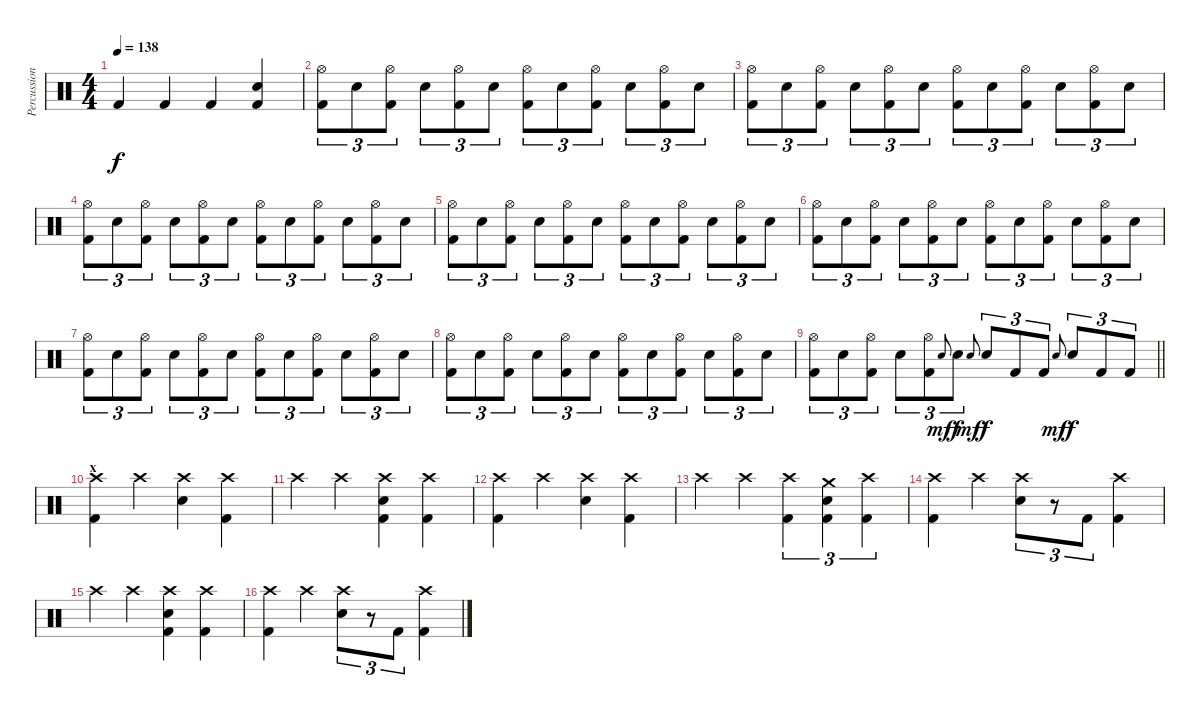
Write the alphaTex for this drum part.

\track ("Percussion" "Percussion") {instrument percussion}
\staff {score}
\articulation defaults
\ts (4 4)
\tempo 138
\clef neutral
\ks c "Kick (hit) 2".4{dy f} "Kick (hit) 2".4 "Kick (hit) 2".4
("Electric Snare (hit)" "Kick (hit) 2").4 |
("Hi-Hat (open)" "Kick (hit) 2").8{tu (3 2)} "Electric Snare (hit)".8{tu (3 2)} ("Hi-Hat (open)" "Kick (hit) 2").8{tu (3 2)} "Electric Snare (hit)".8{tu (3 2)} ("Hi-Hat (open)" "Kick (hit) 2").8{tu (3 2)} "Electric Snare (hit)".8{tu (3 2)} ("Hi-Hat (open)" "Kick (hit) 2").8{tu (3 2)} "Electric Snare (hit)".8{tu (3 2)} ("Hi-Hat (open)" "Kick (hit) 2").8{tu (3 2)} "Electric Snare (hit)".8{tu (3 2)} ("Hi-Hat (open)" "Kick (hit) 2").8{tu (3 2)} "Electric Snare (hit)".8{tu (3 2)} |
("Hi-Hat (open)" "Kick (hit) 2").8{tu (3 2)} "Electric Snare (hit)".8{tu (3 2)} ("Hi-Hat (open)" "Kick (hit) 2").8{tu (3 2)} "Electric Snare (hit)".8{tu (3 2)} ("Hi-Hat (open)" "Kick (hit) 2").8{tu (3 2)} "Electric Snare (hit)".8{tu (3 2)} ("Hi-Hat (open)" "Kick (hit) 2").8{tu (3 2)} "Electric Snare (hit)".8{tu (3 2)} ("Hi-Hat (open)" "Kick (hit) 2").8{tu (3 2)} "Electric Snare (hit)".8{tu (3 2)} ("Hi-Hat (open)" "Kick (hit) 2").8{tu (3 2)} "Electric Snare (hit)".8{tu (3 2)} |
("Hi-Hat (open)" "Kick (hit) 2").8{tu (3 2)} "Electric Snare (hit)".8{tu (3 2)} ("Hi-Hat (open)" "Kick (hit) 2").8{tu (3 2)} "Electric Snare (hit)".8{tu (3 2)} ("Hi-Hat (open)" "Kick (hit) 2").8{tu (3 2)} "Electric Snare (hit)".8{tu (3 2)} ("Hi-Hat (open)" "Kick (hit) 2").8{tu (3 2)} "Electric Snare (hit)".8{tu (3 2)} ("Hi-Hat (open)" "Kick (hit) 2").8{tu (3 2)} "Electric Snare (hit)".8{tu (3 2)} ("Hi-Hat (open)" "Kick (hit) 2").8{tu (3 2)} "Electric Snare (hit)".8{tu (3 2)} |
("Hi-Hat (open)" "Kick (hit) 2").8{tu (3 2)} "Electric Snare (hit)".8{tu (3 2)} ("Hi-Hat (open)" "Kick (hit) 2").8{tu (3 2)} "Electric Snare (hit)".8{tu (3 2)} ("Hi-Hat (open)" "Kick (hit) 2").8{tu (3 2)} "Electric Snare (hit)".8{tu (3 2)} ("Hi-Hat (open)" "Kick (hit) 2").8{tu (3 2)} "Electric Snare (hit)".8{tu (3 2)} ("Hi-Hat (open)" "Kick (hit) 2").8{tu (3 2)} "Electric Snare (hit)".8{tu (3 2)} ("Hi-Hat (open)" "Kick (hit) 2").8{tu (3 2)} "Electric Snare (hit)".8{tu (3 2)} |
("Hi-Hat (open)" "Kick (hit) 2").8{tu (3 2)} "Electric Snare (hit)".8{tu (3 2)} ("Hi-Hat (open)" "Kick (hit) 2").8{tu (3 2)} "Electric Snare (hit)".8{tu (3 2)} ("Hi-Hat (open)" "Kick (hit) 2").8{tu (3 2)} "Electric Snare (hit)".8{tu (3 2)} ("Hi-Hat (open)" "Kick (hit) 2").8{tu (3 2)} "Electric Snare (hit)".8{tu (3 2)} ("Hi-Hat (open)" "Kick (hit) 2").8{tu (3 2)} "Electric Snare (hit)".8{tu (3 2)} ("Hi-Hat (open)" "Kick (hit) 2").8{tu (3 2)} "Electric Snare (hit)".8{tu (3 2)} |
("Hi-Hat (open)" "Kick (hit) 2").8{tu (3 2)} "Electric Snare (hit)".8{tu (3 2)} ("Hi-Hat (open)" "Kick (hit) 2").8{tu (3 2)} "Electric Snare (hit)".8{tu (3 2)} ("Hi-Hat (open)" "Kick (hit) 2").8{tu (3 2)} "Electric Snare (hit)".8{tu (3 2)} ("Hi-Hat (open)" "Kick (hit) 2").8{tu (3 2)} "Electric Snare (hit)".8{tu (3 2)} ("Hi-Hat (open)" "Kick (hit) 2").8{tu (3 2)} "Electric Snare (hit)".8{tu (3 2)} ("Hi-Hat (open)" "Kick (hit) 2").8{tu (3 2)} "Electric Snare (hit)".8{tu (3 2)} |
("Hi-Hat (open)" "Kick (hit) 2").8{tu (3 2)} "Electric Snare (hit)".8{tu (3 2)} ("Hi-Hat (open)" "Kick (hit) 2").8{tu (3 2)} "Electric Snare (hit)".8{tu (3 2)} ("Hi-Hat (open)" "Kick (hit) 2").8{tu (3 2)} "Electric Snare (hit)".8{tu (3 2)} ("Hi-Hat (open)" "Kick (hit) 2").8{tu (3 2)} "Electric Snare (hit)".8{tu (3 2)} ("Hi-Hat (open)" "Kick (hit) 2").8{tu (3 2)} "Electric Snare (hit)".8{tu (3 2)} ("Hi-Hat (open)" "Kick (hit) 2").8{tu (3 2)} "Electric Snare (hit)".8{tu (3 2)} |
\barLineRight lightlight
("Hi-Hat (open)" "Kick (hit) 2").8{tu (3 2)} "Electric Snare (hit)".8{tu (3 2)} ("Hi-Hat (open)" "Kick (hit) 2").8{tu (3 2)} "Electric Snare (hit)".8{tu (3 2)} ("Hi-Hat (open)" "Kick (hit) 2").8{tu (3 2)} "Electric Snare (hit)".8{gr onbeat dy mf} "Electric Snare (hit)".8{tu (3 2) dy f} "Electric Snare (hit)".8{gr onbeat dy mf} "Electric Snare (hit)".8{tu (3 2) dy f} "Kick (hit) 2".8{tu (3 2)} "Kick (hit) 2".8{tu (3 2)} "Electric Snare (hit)".8{gr onbeat dy mf} "Electric Snare (hit)".8{tu (3 2) dy f} "Kick (hit) 2".8{tu (3 2)} "Kick (hit) 2".8{tu (3 2)} |
\section ("" "x")
("Crash high (hit)" "Kick (hit) 2").4 "Crash high (hit)".4 ("Crash high (hit)" "Electric Snare (hit)").4 ("Crash high (hit)" "Kick (hit) 2").4 |
"Crash high (hit)".4 "Crash high (hit)".4 ("Crash high (hit)" "Electric Snare (hit)" "Kick (hit) 2").4 ("Crash high (hit)" "Kick (hit) 2").4 |
("Crash high (hit)" "Kick (hit) 2").4 "Crash high (hit)".4 ("Crash high (hit)" "Electric Snare (hit)").4 ("Crash high (hit)" "Kick (hit) 2").4 |
"Crash high (hit)".4 "Crash high (hit)".4 ("Crash high (hit)" "Kick (hit) 2").4{tu (3 2)} ("Crash medium (hit)" "Electric Snare (hit)" "Kick (hit) 2").4{tu (3 2)} ("Crash high (hit)" "Kick (hit) 2").4{tu (3 2)} |
("Crash high (hit)" "Kick (hit) 2").4 "Crash high (hit)".4 ("Crash high (hit)" "Electric Snare (hit)").8{tu (3 2)} r.8{tu (3 2)} "Kick (hit) 2".8{tu (3 2)} ("Crash high (hit)" "Kick (hit) 2").4 |
"Crash high (hit)".4 "Crash high (hit)".4 ("Crash high (hit)" "Electric Snare (hit)" "Kick (hit) 2").4 ("Crash high (hit)" "Kick (hit) 2").4 |
("Crash high (hit)" "Kick (hit) 2").4 "Crash high (hit)".4 ("Crash high (hit)" "Electric Snare (hit)").8{tu (3 2)} r.8{tu (3 2)} "Kick (hit) 2".8{tu (3 2)} ("Crash high (hit)" "Kick (hit) 2").4
